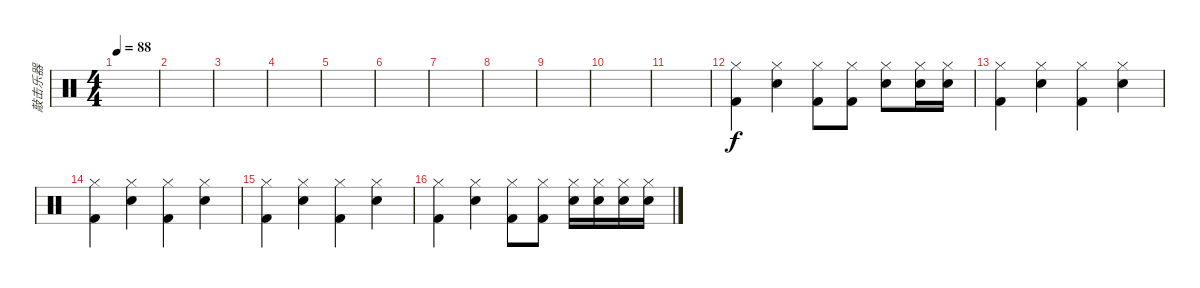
\track ("敲击乐器" "敲击乐器") {instrument percussion}
\staff {score}
\articulation defaults
\ts (4 4)
\tempo 88
\clef neutral
\ks c
|
|
|
|
|
|
|
|
|
|
|
("Hi-Hat (closed)" "Kick (hit) 2").4 ("Hi-Hat (closed)" "Snare (hit) 2").4 ("Hi-Hat (closed)" "Kick (hit) 2").8 ("Hi-Hat (closed)" "Kick (hit) 2").8 ("Hi-Hat (closed)" "Snare (hit) 2").8 ("Hi-Hat (closed)" "Snare (hit) 2").16 ("Hi-Hat (closed)" "Snare (hit) 2").16 |
("Hi-Hat (closed)" "Kick (hit) 2").4 ("Hi-Hat (closed)" "Snare (hit) 2").4 ("Hi-Hat (closed)" "Kick (hit) 2").4 ("Hi-Hat (closed)" "Snare (hit) 2").4 |
("Hi-Hat (closed)" "Kick (hit) 2").4 ("Hi-Hat (closed)" "Snare (hit) 2").4 ("Hi-Hat (closed)" "Kick (hit) 2").4 ("Hi-Hat (closed)" "Snare (hit) 2").4 |
("Hi-Hat (closed)" "Kick (hit) 2").4 ("Hi-Hat (closed)" "Snare (hit) 2").4 ("Hi-Hat (closed)" "Kick (hit) 2").4 ("Hi-Hat (closed)" "Snare (hit) 2").4 |
("Hi-Hat (closed)" "Kick (hit) 2").4 ("Hi-Hat (closed)" "Snare (hit) 2").4 ("Hi-Hat (closed)" "Kick (hit) 2").8 ("Hi-Hat (closed)" "Kick (hit) 2").8 ("Hi-Hat (closed)" "Snare (hit) 2").16 ("Hi-Hat (closed)" "Snare (hit) 2").16 ("Hi-Hat (closed)" "Snare (hit) 2").16 ("Hi-Hat (closed)" "Snare (hit) 2").16
